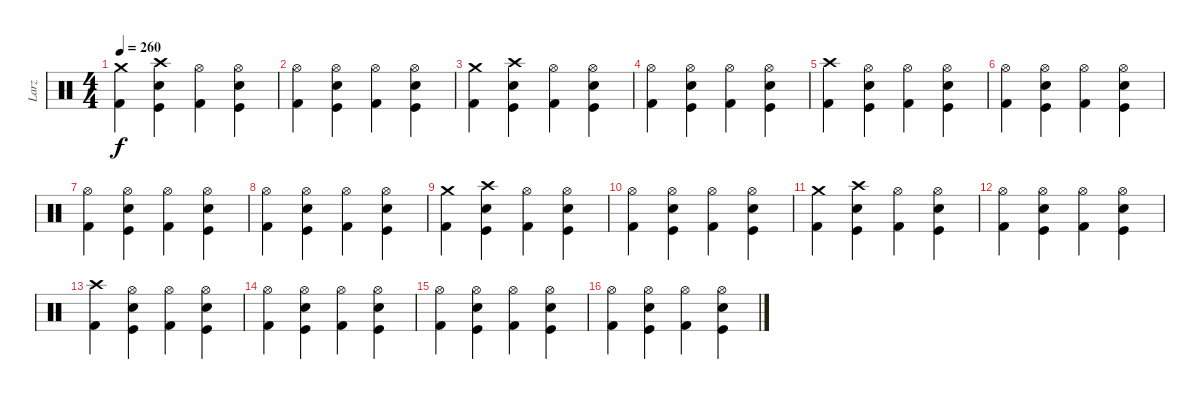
\track ("Larz" "Larz") {instrument percussion}
\staff {score}
\articulation defaults
\ts (4 4)
\tempo 260
\clef neutral
\ks c
("Crash medium (hit)" "Kick (hit) 2").4{dy f} ("Crash high (hit)" "Kick (hit)" "Electric Snare (hit)").4 ("Hi-Hat (open)" "Kick (hit) 2").4 ("Hi-Hat (open)" "Kick (hit)" "Electric Snare (hit)").4 |
("Hi-Hat (open)" "Kick (hit) 2").4 ("Hi-Hat (open)" "Kick (hit)" "Electric Snare (hit)").4 ("Hi-Hat (open)" "Kick (hit) 2").4 ("Hi-Hat (open)" "Kick (hit)" "Electric Snare (hit)").4 |
("Crash medium (hit)" "Kick (hit) 2").4 ("Crash high (hit)" "Kick (hit)" "Electric Snare (hit)").4 ("Hi-Hat (open)" "Kick (hit) 2").4 ("Hi-Hat (open)" "Kick (hit)" "Electric Snare (hit)").4 |
("Hi-Hat (open)" "Kick (hit) 2").4 ("Hi-Hat (open)" "Kick (hit)" "Electric Snare (hit)").4 ("Hi-Hat (open)" "Kick (hit) 2").4 ("Hi-Hat (open)" "Kick (hit)" "Electric Snare (hit)").4 |
("Crash high (hit)" "Kick (hit) 2").4 ("Hi-Hat (open)" "Kick (hit)" "Electric Snare (hit)").4 ("Hi-Hat (open)" "Kick (hit) 2").4 ("Hi-Hat (open)" "Kick (hit)" "Electric Snare (hit)").4 |
("Hi-Hat (open)" "Kick (hit) 2").4 ("Hi-Hat (open)" "Kick (hit)" "Electric Snare (hit)").4 ("Hi-Hat (open)" "Kick (hit) 2").4 ("Hi-Hat (open)" "Kick (hit)" "Electric Snare (hit)").4 |
("Hi-Hat (open)" "Kick (hit) 2").4 ("Hi-Hat (open)" "Kick (hit)" "Electric Snare (hit)").4 ("Hi-Hat (open)" "Kick (hit) 2").4 ("Hi-Hat (open)" "Kick (hit)" "Electric Snare (hit)").4 |
("Hi-Hat (open)" "Kick (hit) 2").4 ("Hi-Hat (open)" "Kick (hit)" "Electric Snare (hit)").4 ("Hi-Hat (open)" "Kick (hit) 2").4 ("Hi-Hat (open)" "Kick (hit)" "Electric Snare (hit)").4 |
("Crash medium (hit)" "Kick (hit) 2").4 ("Crash high (hit)" "Kick (hit)" "Electric Snare (hit)").4 ("Hi-Hat (open)" "Kick (hit) 2").4 ("Hi-Hat (open)" "Kick (hit)" "Electric Snare (hit)").4 |
("Hi-Hat (open)" "Kick (hit) 2").4 ("Hi-Hat (open)" "Kick (hit)" "Electric Snare (hit)").4 ("Hi-Hat (open)" "Kick (hit) 2").4 ("Hi-Hat (open)" "Kick (hit)" "Electric Snare (hit)").4 |
("Crash medium (hit)" "Kick (hit) 2").4 ("Crash high (hit)" "Kick (hit)" "Electric Snare (hit)").4 ("Hi-Hat (open)" "Kick (hit) 2").4 ("Hi-Hat (open)" "Kick (hit)" "Electric Snare (hit)").4 |
("Hi-Hat (open)" "Kick (hit) 2").4 ("Hi-Hat (open)" "Kick (hit)" "Electric Snare (hit)").4 ("Hi-Hat (open)" "Kick (hit) 2").4 ("Hi-Hat (open)" "Kick (hit)" "Electric Snare (hit)").4 |
("Crash high (hit)" "Kick (hit) 2").4 ("Hi-Hat (open)" "Kick (hit)" "Electric Snare (hit)").4 ("Hi-Hat (open)" "Kick (hit) 2").4 ("Hi-Hat (open)" "Kick (hit)" "Electric Snare (hit)").4 |
("Hi-Hat (open)" "Kick (hit) 2").4 ("Hi-Hat (open)" "Kick (hit)" "Electric Snare (hit)").4 ("Hi-Hat (open)" "Kick (hit) 2").4 ("Hi-Hat (open)" "Kick (hit)" "Electric Snare (hit)").4 |
("Hi-Hat (open)" "Kick (hit) 2").4 ("Hi-Hat (open)" "Kick (hit)" "Electric Snare (hit)").4 ("Hi-Hat (open)" "Kick (hit) 2").4 ("Hi-Hat (open)" "Kick (hit)" "Electric Snare (hit)").4 |
("Hi-Hat (open)" "Kick (hit) 2").4 ("Hi-Hat (open)" "Kick (hit)" "Electric Snare (hit)").4 ("Hi-Hat (open)" "Kick (hit) 2").4 ("Hi-Hat (open)" "Kick (hit)" "Electric Snare (hit)").4
